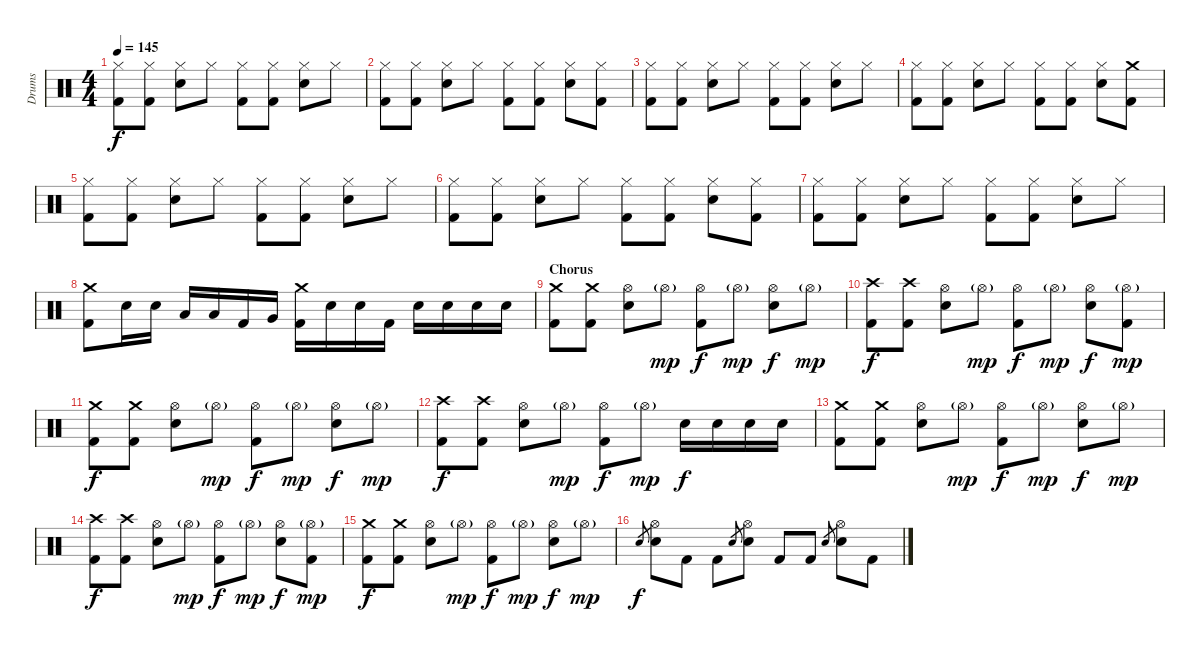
\track ("Drums" "Drums") {instrument percussion}
\staff {score}
\articulation defaults
\ts (4 4)
\tempo 145
\clef neutral
\ks c
("Hi-Hat (closed)" "Kick (hit) 2").8{dy f} ("Hi-Hat (closed)" "Kick (hit) 2").8 ("Hi-Hat (closed)" "Electric Snare (hit)").8 "Hi-Hat (closed)".8 ("Hi-Hat (closed)" "Kick (hit) 2").8 ("Hi-Hat (closed)" "Kick (hit) 2").8 ("Hi-Hat (closed)" "Electric Snare (hit)").8 "Hi-Hat (closed)".8 |
("Hi-Hat (closed)" "Kick (hit) 2").8 ("Hi-Hat (closed)" "Kick (hit) 2").8 ("Hi-Hat (closed)" "Electric Snare (hit)").8 "Hi-Hat (closed)".8 ("Hi-Hat (closed)" "Kick (hit) 2").8 ("Hi-Hat (closed)" "Kick (hit) 2").8 ("Hi-Hat (closed)" "Electric Snare (hit)").8 ("Hi-Hat (closed)" "Kick (hit) 2").8 |
("Hi-Hat (closed)" "Kick (hit) 2").8 ("Hi-Hat (closed)" "Kick (hit) 2").8 ("Hi-Hat (closed)" "Electric Snare (hit)").8 "Hi-Hat (closed)".8 ("Hi-Hat (closed)" "Kick (hit) 2").8 ("Hi-Hat (closed)" "Kick (hit) 2").8 ("Hi-Hat (closed)" "Electric Snare (hit)").8 "Hi-Hat (closed)".8 |
("Hi-Hat (closed)" "Kick (hit) 2").8 ("Hi-Hat (closed)" "Kick (hit) 2").8 ("Hi-Hat (closed)" "Electric Snare (hit)").8 "Hi-Hat (closed)".8 ("Hi-Hat (closed)" "Kick (hit) 2").8 ("Hi-Hat (closed)" "Kick (hit) 2").8 ("Hi-Hat (closed)" "Electric Snare (hit)").8 ("Crash medium (hit)" "Kick (hit) 2").8 |
("Hi-Hat (closed)" "Kick (hit) 2").8 ("Hi-Hat (closed)" "Kick (hit) 2").8 ("Hi-Hat (closed)" "Electric Snare (hit)").8 "Hi-Hat (closed)".8 ("Hi-Hat (closed)" "Kick (hit) 2").8 ("Hi-Hat (closed)" "Kick (hit) 2").8 ("Hi-Hat (closed)" "Electric Snare (hit)").8 "Hi-Hat (closed)".8 |
("Hi-Hat (closed)" "Kick (hit) 2").8 ("Hi-Hat (closed)" "Kick (hit) 2").8 ("Hi-Hat (closed)" "Electric Snare (hit)").8 "Hi-Hat (closed)".8 ("Hi-Hat (closed)" "Kick (hit) 2").8 ("Hi-Hat (closed)" "Kick (hit) 2").8 ("Hi-Hat (closed)" "Electric Snare (hit)").8 ("Hi-Hat (closed)" "Kick (hit) 2").8 |
("Hi-Hat (closed)" "Kick (hit) 2").8 ("Hi-Hat (closed)" "Kick (hit) 2").8 ("Hi-Hat (closed)" "Electric Snare (hit)").8 "Hi-Hat (closed)".8 ("Hi-Hat (closed)" "Kick (hit) 2").8 ("Hi-Hat (closed)" "Kick (hit) 2").8 ("Hi-Hat (closed)" "Electric Snare (hit)").8 "Hi-Hat (closed)".8 |
("Crash medium (hit)" "Kick (hit) 2").8 "Electric Snare (hit)".16 "Electric Snare (hit)".16 "Low Tom (hit)".16 "Low Tom (hit)".16 "Kick (hit) 2".16 "Very Low Tom (hit)".16 ("Crash medium (hit)" "Kick (hit) 2").16 "Electric Snare (hit)".16 "Electric Snare (hit)".16 "Kick (hit) 2".16 "Electric Snare (hit)".16 "Electric Snare (hit)".16 "Electric Snare (hit)".16 "Electric Snare (hit)".16 |
\section ("" "Chorus")
("Crash medium (hit)" "Kick (hit) 2").8 ("Crash medium (hit)" "Kick (hit) 2").8 ("Hi-Hat (open)" "Electric Snare (hit)").8 "Hi-Hat (open)"{g}.8{dy mp} ("Hi-Hat (open)" "Kick (hit) 2").8{dy f} "Hi-Hat (open)"{g}.8{dy mp} ("Hi-Hat (open)" "Electric Snare (hit)").8{dy f} "Hi-Hat (open)"{g}.8{dy mp} |
("Crash high (hit)" "Kick (hit) 2").8{dy f} ("Crash high (hit)" "Kick (hit) 2").8 ("Hi-Hat (open)" "Electric Snare (hit)").8 "Hi-Hat (open)"{g}.8{dy mp} ("Hi-Hat (open)" "Kick (hit) 2").8{dy f} "Hi-Hat (open)"{g}.8{dy mp} ("Hi-Hat (open)" "Electric Snare (hit)").8{dy f} ("Hi-Hat (open)"{g} "Kick (hit) 2").8{dy mp} |
("Crash medium (hit)" "Kick (hit) 2").8{dy f} ("Crash medium (hit)" "Kick (hit) 2").8 ("Hi-Hat (open)" "Electric Snare (hit)").8 "Hi-Hat (open)"{g}.8{dy mp} ("Hi-Hat (open)" "Kick (hit) 2").8{dy f} "Hi-Hat (open)"{g}.8{dy mp} ("Hi-Hat (open)" "Electric Snare (hit)").8{dy f} "Hi-Hat (open)"{g}.8{dy mp} |
("Crash high (hit)" "Kick (hit) 2").8{dy f} ("Crash high (hit)" "Kick (hit) 2").8 ("Hi-Hat (open)" "Electric Snare (hit)").8 "Hi-Hat (open)"{g}.8{dy mp} ("Hi-Hat (open)" "Kick (hit) 2").8{dy f} "Hi-Hat (open)"{g}.8{dy mp} "Electric Snare (hit)".16{dy f} "Electric Snare (hit)".16 "Electric Snare (hit)".16 "Electric Snare (hit)".16 |
("Crash medium (hit)" "Kick (hit) 2").8 ("Crash medium (hit)" "Kick (hit) 2").8 ("Hi-Hat (open)" "Electric Snare (hit)").8 "Hi-Hat (open)"{g}.8{dy mp} ("Hi-Hat (open)" "Kick (hit) 2").8{dy f} "Hi-Hat (open)"{g}.8{dy mp} ("Hi-Hat (open)" "Electric Snare (hit)").8{dy f} "Hi-Hat (open)"{g}.8{dy mp} |
("Crash high (hit)" "Kick (hit) 2").8{dy f} ("Crash high (hit)" "Kick (hit) 2").8 ("Hi-Hat (open)" "Electric Snare (hit)").8 "Hi-Hat (open)"{g}.8{dy mp} ("Hi-Hat (open)" "Kick (hit) 2").8{dy f} "Hi-Hat (open)"{g}.8{dy mp} ("Hi-Hat (open)" "Electric Snare (hit)").8{dy f} ("Hi-Hat (open)"{g} "Kick (hit) 2").8{dy mp} |
("Crash medium (hit)" "Kick (hit) 2").8{dy f} ("Crash medium (hit)" "Kick (hit) 2").8 ("Hi-Hat (open)" "Electric Snare (hit)").8 "Hi-Hat (open)"{g}.8{dy mp} ("Hi-Hat (open)" "Kick (hit) 2").8{dy f} "Hi-Hat (open)"{g}.8{dy mp} ("Hi-Hat (open)" "Electric Snare (hit)").8{dy f} "Hi-Hat (open)"{g}.8{dy mp} |
"Electric Snare (hit)".8{gr dy f} ("Hi-Hat (open)" "Electric Snare (hit)").8 "Kick (hit) 2".8 "Kick (hit) 2".8 "Electric Snare (hit)".8{gr} ("Hi-Hat (open)" "Electric Snare (hit)").8 "Kick (hit) 2".8 "Kick (hit) 2".8 "Electric Snare (hit)".8{gr} ("Hi-Hat (open)" "Electric Snare (hit)").8 "Kick (hit) 2".8
